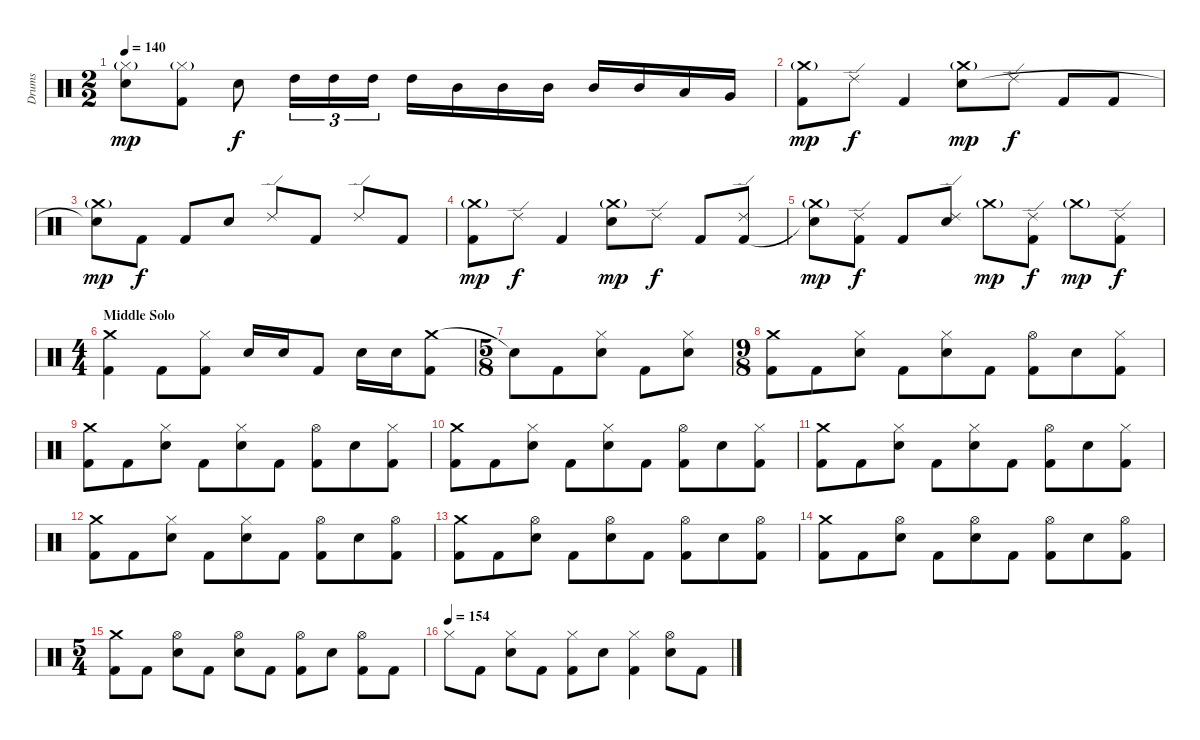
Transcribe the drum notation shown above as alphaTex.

\track ("Drums" "Drums") {instrument percussion}
\staff {score}
\articulation defaults
\ts (2 2)
\tempo 140
\clef neutral
\ks c
("Hi-Hat (closed)"{g} "Snare (hit)"{t}).8{dy mp} ("Hi-Hat (closed)"{g} "Kick (hit) 2").8 "Electric Snare (hit)".8{dy f} "High Tom (hit)".16{tu (3 2)} "High Tom (hit)".16{tu (3 2)} "High Tom (hit)".16{tu (3 2)} "High Tom (hit)".16 "Mid Tom (hit)".16 "Mid Tom (hit)".16 "Mid Tom (hit)".16 "Mid Tom (hit)".16 "Mid Tom (hit)".16 "Low Tom (hit)".16 "Very Low Tom (hit)".16 |
("Crash medium (hit)"{g} "Kick (hit) 2").8{dy mp} "Ride (edge) 2".8{dy f} "Kick (hit) 2".4 ("Crash medium (hit)"{g} "Electric Snare (hit)").8{dy mp} "Ride (edge) 2".8{dy f} "Kick (hit) 2".8 "Kick (hit) 2".8 |
("Crash medium (hit)"{g} "Snare (hit)"{t}).8{dy mp} "Kick (hit) 2".8{dy f} "Kick (hit) 2".8 "Electric Snare (hit)".8 "Ride (edge) 2".8 "Kick (hit) 2".8 "Ride (edge) 2".8 "Kick (hit) 2".8 |
("Crash medium (hit)"{g} "Kick (hit) 2").8{dy mp} "Ride (edge) 2".8{dy f} "Kick (hit) 2".4 ("Crash medium (hit)"{g} "Electric Snare (hit)").8{dy mp} "Ride (edge) 2".8{dy f} "Kick (hit) 2".8 ("Ride (edge) 2" "Kick (hit) 2").8 |
("Crash medium (hit)"{g} "Snare (hit)"{t}).8{dy mp} ("Ride (edge) 2" "Kick (hit) 2").8{dy f} "Kick (hit) 2".8 ("Ride (edge) 2" "Electric Snare (hit)").8 "Crash medium (hit)"{g}.8{dy mp} ("Ride (edge) 2" "Kick (hit) 2").8{dy f} "Crash medium (hit)"{g}.8{dy mp} ("Ride (edge) 2" "Kick (hit) 2").8{dy f} |
\ts (4 4)
\section ("" "Middle Solo")
("Crash medium (hit)" "Kick (hit) 2").4 "Kick (hit) 2".8 ("Hi-Hat (closed)" "Kick (hit) 2").8 "Electric Snare (hit)".16 "Electric Snare (hit)".16 "Kick (hit) 2".8 "Electric Snare (hit)".16 "Electric Snare (hit)".16 ("Crash medium (hit)" "Kick (hit) 2").8 |
\ts (5 8)
"Snare (hit)"{t}.8 "Kick (hit) 2".8 ("Electric Snare (hit)" "Hi-Hat (closed)").8 "Kick (hit) 2".8 ("Electric Snare (hit)" "Hi-Hat (closed)").8 |
\ts (9 8)
("Kick (hit) 2" "Crash medium (hit)").8 "Kick (hit) 2".8 ("Electric Snare (hit)" "Hi-Hat (closed)").8 "Kick (hit) 2".8 ("Hi-Hat (closed)" "Electric Snare (hit)").8 "Kick (hit) 2".8 ("Kick (hit) 2" "Hi-Hat (open)").8 "Electric Snare (hit)".8 ("Hi-Hat (closed)" "Kick (hit) 2").8 |
("Kick (hit) 2" "Crash medium (hit)").8 "Kick (hit) 2".8 ("Electric Snare (hit)" "Hi-Hat (closed)").8 "Kick (hit) 2".8 ("Hi-Hat (closed)" "Electric Snare (hit)").8 "Kick (hit) 2".8 ("Kick (hit) 2" "Hi-Hat (open)").8 "Electric Snare (hit)".8 ("Hi-Hat (closed)" "Kick (hit) 2").8 |
("Kick (hit) 2" "Crash medium (hit)").8 "Kick (hit) 2".8 ("Electric Snare (hit)" "Hi-Hat (closed)").8 "Kick (hit) 2".8 ("Hi-Hat (closed)" "Electric Snare (hit)").8 "Kick (hit) 2".8 ("Kick (hit) 2" "Hi-Hat (open)").8 "Electric Snare (hit)".8 ("Hi-Hat (closed)" "Kick (hit) 2").8 |
("Kick (hit) 2" "Crash medium (hit)").8 "Kick (hit) 2".8 ("Electric Snare (hit)" "Hi-Hat (closed)").8 "Kick (hit) 2".8 ("Hi-Hat (closed)" "Electric Snare (hit)").8 "Kick (hit) 2".8 ("Kick (hit) 2" "Hi-Hat (open)").8 "Electric Snare (hit)".8 ("Hi-Hat (closed)" "Kick (hit) 2").8 |
("Kick (hit) 2" "Crash medium (hit)").8 "Kick (hit) 2".8 ("Electric Snare (hit)" "Hi-Hat (closed)").8 "Kick (hit) 2".8 ("Hi-Hat (closed)" "Electric Snare (hit)").8 "Kick (hit) 2".8 ("Kick (hit) 2" "Hi-Hat (open)").8 "Electric Snare (hit)".8 ("Hi-Hat (open)" "Kick (hit) 2").8 |
("Kick (hit) 2" "Crash medium (hit)").8 "Kick (hit) 2".8 ("Electric Snare (hit)" "Hi-Hat (open)").8 "Kick (hit) 2".8 ("Hi-Hat (open)" "Electric Snare (hit)").8 "Kick (hit) 2".8 ("Kick (hit) 2" "Hi-Hat (open)").8 "Electric Snare (hit)".8 ("Hi-Hat (open)" "Kick (hit) 2").8 |
("Kick (hit) 2" "Crash medium (hit)").8 "Kick (hit) 2".8 ("Electric Snare (hit)" "Hi-Hat (open)").8 "Kick (hit) 2".8 ("Hi-Hat (open)" "Electric Snare (hit)").8 "Kick (hit) 2".8 ("Kick (hit) 2" "Hi-Hat (open)").8 "Electric Snare (hit)".8 ("Hi-Hat (open)" "Kick (hit) 2").8 |
\ts (5 4)
("Crash medium (hit)" "Kick (hit) 2").8 "Kick (hit) 2".8 ("Electric Snare (hit)" "Hi-Hat (open)").8 "Kick (hit) 2".8 ("Hi-Hat (open)" "Electric Snare (hit)").8 "Kick (hit) 2".8 ("Kick (hit) 2" "Hi-Hat (open)").8 "Electric Snare (hit)".8 ("Hi-Hat (open)" "Kick (hit) 2").8 "Kick (hit) 2".8 |
\tempo (154)
"Hi-Hat (closed)".8 "Kick (hit) 2".8 ("Hi-Hat (closed)" "Electric Snare (hit)").8 "Kick (hit) 2".8 ("Hi-Hat (closed)" "Kick (hit) 2").8 "Electric Snare (hit)".8 ("Hi-Hat (closed)" "Kick (hit) 2").4 ("Hi-Hat (open)" "Electric Snare (hit)").8 "Kick (hit) 2".8
